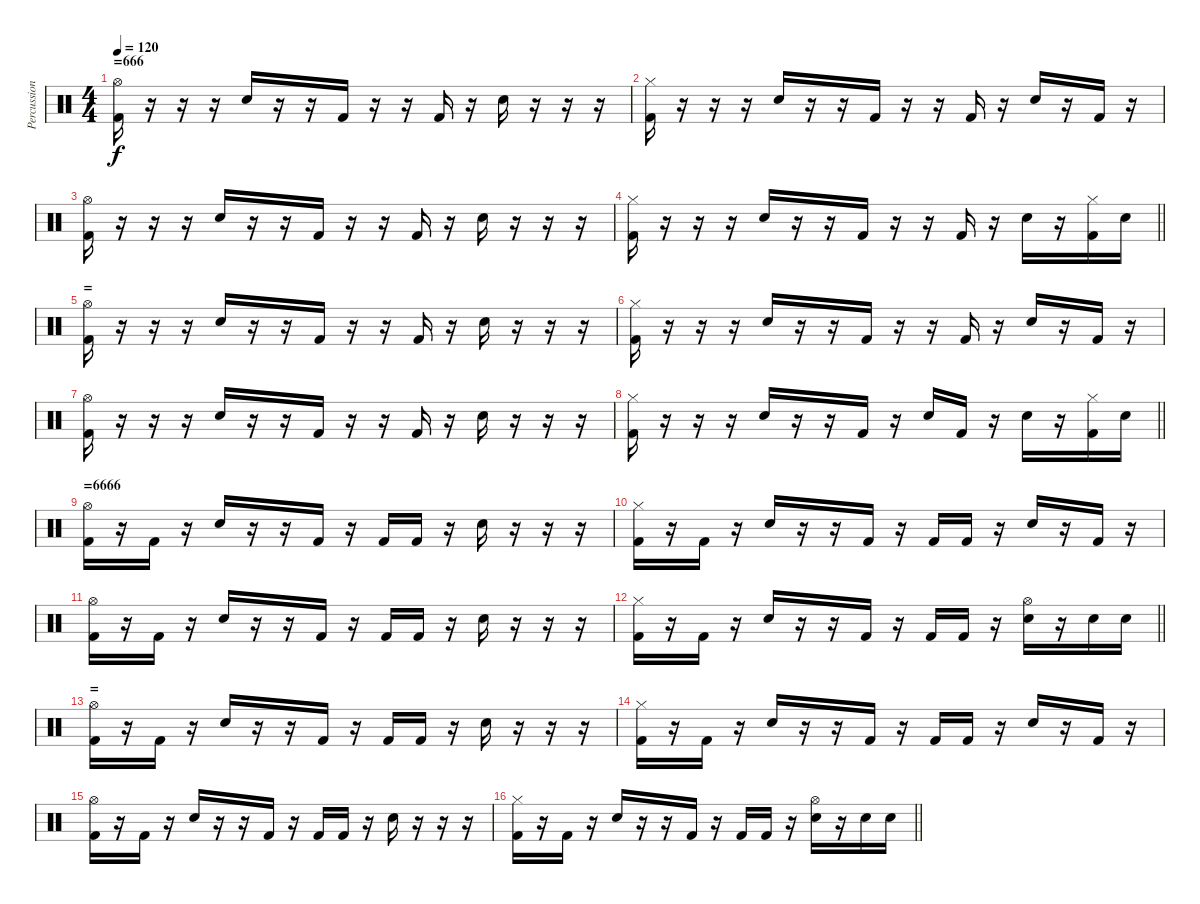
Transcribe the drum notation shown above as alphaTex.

\track ("Percussion" "Percussion") {instrument percussion}
\staff {score}
\articulation defaults
\ts (4 4)
\section ("" "=666")
\tempo 120
\clef neutral
\ks c
("Kick (hit) 2" "Hi-Hat (open)").16{dy f} r.16 r.16 r.16 "Electric Snare (hit)".16 r.16 r.16 "Kick (hit) 2".16 r.16 r.16 "Kick (hit) 2".16 r.16 "Electric Snare (hit)".16 r.16 r.16 r.16 |
("Kick (hit) 2" "Hi-Hat (closed)").16 r.16 r.16 r.16 "Electric Snare (hit)".16 r.16 r.16 "Kick (hit) 2".16 r.16 r.16 "Kick (hit) 2".16 r.16 "Electric Snare (hit)".16 r.16 "Kick (hit) 2".16 r.16 |
("Kick (hit) 2" "Hi-Hat (open)").16 r.16 r.16 r.16 "Electric Snare (hit)".16 r.16 r.16 "Kick (hit) 2".16 r.16 r.16 "Kick (hit) 2".16 r.16 "Electric Snare (hit)".16 r.16 r.16 r.16 |
\barLineRight lightlight
("Kick (hit) 2" "Hi-Hat (closed)").16 r.16 r.16 r.16 "Electric Snare (hit)".16 r.16 r.16 "Kick (hit) 2".16 r.16 r.16 "Kick (hit) 2".16 r.16 "Electric Snare (hit)".16 r.16 ("Kick (hit) 2" "Hi-Hat (closed)").16 "Electric Snare (hit)".16 |
\section ("" "=")
("Kick (hit) 2" "Hi-Hat (open)").16 r.16 r.16 r.16 "Electric Snare (hit)".16 r.16 r.16 "Kick (hit) 2".16 r.16 r.16 "Kick (hit) 2".16 r.16 "Electric Snare (hit)".16 r.16 r.16 r.16 |
("Kick (hit) 2" "Hi-Hat (closed)").16 r.16 r.16 r.16 "Electric Snare (hit)".16 r.16 r.16 "Kick (hit) 2".16 r.16 r.16 "Kick (hit) 2".16 r.16 "Electric Snare (hit)".16 r.16 "Kick (hit) 2".16 r.16 |
("Kick (hit) 2" "Hi-Hat (open)").16 r.16 r.16 r.16 "Electric Snare (hit)".16 r.16 r.16 "Kick (hit) 2".16 r.16 r.16 "Kick (hit) 2".16 r.16 "Electric Snare (hit)".16 r.16 r.16 r.16 |
\barLineRight lightlight
("Kick (hit) 2" "Hi-Hat (closed)").16 r.16 r.16 r.16 "Electric Snare (hit)".16 r.16 r.16 "Kick (hit) 2".16 r.16 "Electric Snare (hit)".16 "Kick (hit) 2".16 r.16 "Electric Snare (hit)".16 r.16 ("Kick (hit) 2" "Hi-Hat (closed)").16 "Electric Snare (hit)".16 |
\section ("" "=6666")
("Kick (hit) 2" "Hi-Hat (open)").16 r.16 "Kick (hit) 2".16 r.16 "Electric Snare (hit)".16 r.16 r.16 "Kick (hit) 2".16 r.16 "Kick (hit) 2".16 "Kick (hit) 2".16 r.16 "Electric Snare (hit)".16 r.16 r.16 r.16 |
("Kick (hit) 2" "Hi-Hat (closed)").16 r.16 "Kick (hit) 2".16 r.16 "Electric Snare (hit)".16 r.16 r.16 "Kick (hit) 2".16 r.16 "Kick (hit) 2".16 "Kick (hit) 2".16 r.16 "Electric Snare (hit)".16 r.16 "Kick (hit) 2".16 r.16 |
("Kick (hit) 2" "Hi-Hat (open)").16 r.16 "Kick (hit) 2".16 r.16 "Electric Snare (hit)".16 r.16 r.16 "Kick (hit) 2".16 r.16 "Kick (hit) 2".16 "Kick (hit) 2".16 r.16 "Electric Snare (hit)".16 r.16 r.16 r.16 |
\barLineRight lightlight
("Kick (hit) 2" "Hi-Hat (closed)").16 r.16 "Kick (hit) 2".16 r.16 "Electric Snare (hit)".16 r.16 r.16 "Kick (hit) 2".16 r.16 "Kick (hit) 2".16 "Kick (hit) 2".16 r.16 ("Electric Snare (hit)" "Hi-Hat (open)").16 r.16 "Electric Snare (hit)".16 "Electric Snare (hit)".16 |
\section ("" "=")
("Kick (hit) 2" "Hi-Hat (open)").16 r.16 "Kick (hit) 2".16 r.16 "Electric Snare (hit)".16 r.16 r.16 "Kick (hit) 2".16 r.16 "Kick (hit) 2".16 "Kick (hit) 2".16 r.16 "Electric Snare (hit)".16 r.16 r.16 r.16 |
("Kick (hit) 2" "Hi-Hat (closed)").16 r.16 "Kick (hit) 2".16 r.16 "Electric Snare (hit)".16 r.16 r.16 "Kick (hit) 2".16 r.16 "Kick (hit) 2".16 "Kick (hit) 2".16 r.16 "Electric Snare (hit)".16 r.16 "Kick (hit) 2".16 r.16 |
("Kick (hit) 2" "Hi-Hat (open)").16 r.16 "Kick (hit) 2".16 r.16 "Electric Snare (hit)".16 r.16 r.16 "Kick (hit) 2".16 r.16 "Kick (hit) 2".16 "Kick (hit) 2".16 r.16 "Electric Snare (hit)".16 r.16 r.16 r.16 |
\barLineRight lightlight
("Kick (hit) 2" "Hi-Hat (closed)").16 r.16 "Kick (hit) 2".16 r.16 "Electric Snare (hit)".16 r.16 r.16 "Kick (hit) 2".16 r.16 "Kick (hit) 2".16 "Kick (hit) 2".16 r.16 ("Electric Snare (hit)" "Hi-Hat (open)").16 r.16 "Electric Snare (hit)".16 "Electric Snare (hit)".16
